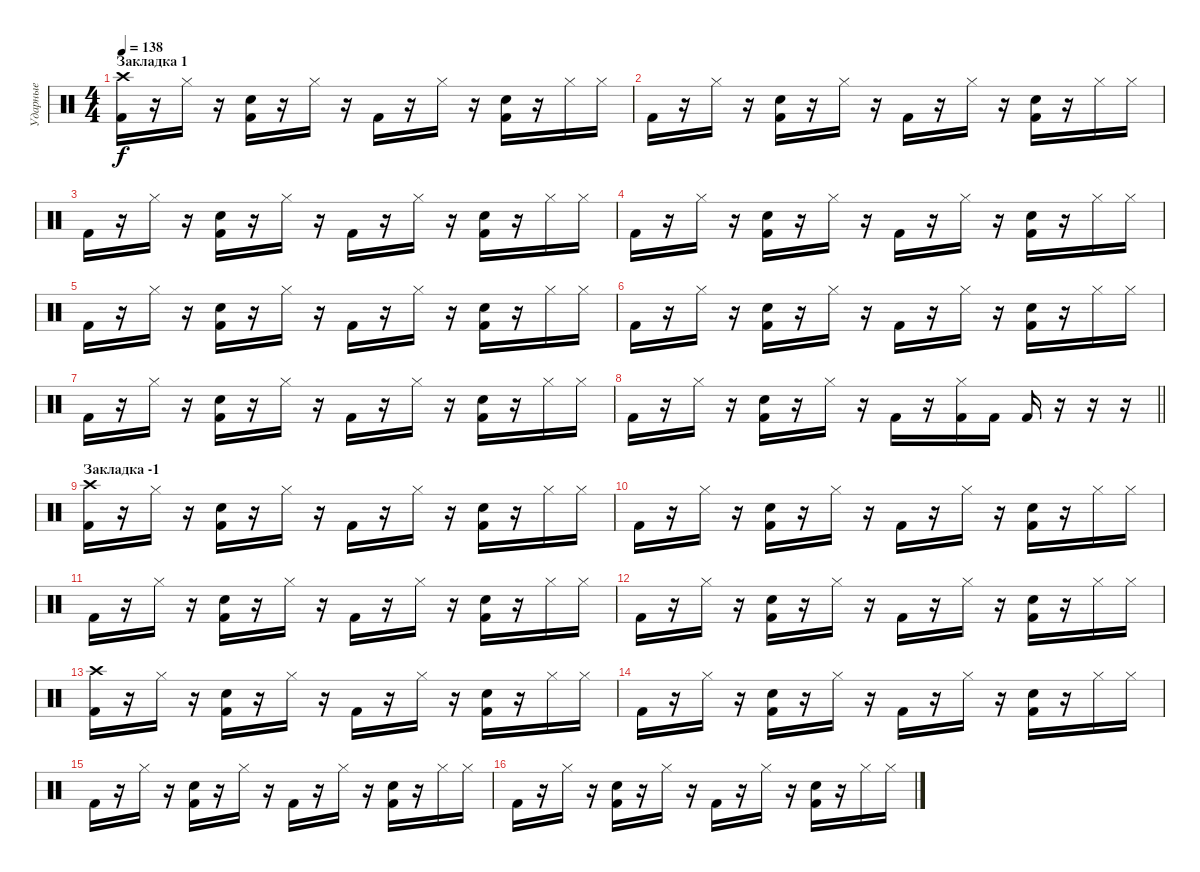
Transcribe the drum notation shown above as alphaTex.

\track ("Ударные" "Ударные") {instrument percussion}
\staff {score}
\articulation defaults
\ts (4 4)
\section ("" "Закладка 1")
\tempo 138
\clef neutral
\ks c
("Crash high (hit)" "Kick (hit) 2").16{dy f} r.16 "Hi-Hat (closed)".16 r.16 ("Electric Snare (hit)" "Kick (hit) 2").16 r.16 "Hi-Hat (closed)".16 r.16 "Kick (hit) 2".16 r.16 "Hi-Hat (closed)".16 r.16 ("Electric Snare (hit)" "Kick (hit) 2").16 r.16 "Hi-Hat (closed)".16 "Hi-Hat (closed)".16 |
"Kick (hit) 2".16 r.16 "Hi-Hat (closed)".16 r.16 ("Electric Snare (hit)" "Kick (hit) 2").16 r.16 "Hi-Hat (closed)".16 r.16 "Kick (hit) 2".16 r.16 "Hi-Hat (closed)".16 r.16 ("Electric Snare (hit)" "Kick (hit) 2").16 r.16 "Hi-Hat (closed)".16 "Hi-Hat (closed)".16 |
"Kick (hit) 2".16 r.16 "Hi-Hat (closed)".16 r.16 ("Electric Snare (hit)" "Kick (hit) 2").16 r.16 "Hi-Hat (closed)".16 r.16 "Kick (hit) 2".16 r.16 "Hi-Hat (closed)".16 r.16 ("Electric Snare (hit)" "Kick (hit) 2").16 r.16 "Hi-Hat (closed)".16 "Hi-Hat (closed)".16 |
"Kick (hit) 2".16 r.16 "Hi-Hat (closed)".16 r.16 ("Electric Snare (hit)" "Kick (hit) 2").16 r.16 "Hi-Hat (closed)".16 r.16 "Kick (hit) 2".16 r.16 "Hi-Hat (closed)".16 r.16 ("Electric Snare (hit)" "Kick (hit) 2").16 r.16 "Hi-Hat (closed)".16 "Hi-Hat (closed)".16 |
"Kick (hit) 2".16 r.16 "Hi-Hat (closed)".16 r.16 ("Electric Snare (hit)" "Kick (hit) 2").16 r.16 "Hi-Hat (closed)".16 r.16 "Kick (hit) 2".16 r.16 "Hi-Hat (closed)".16 r.16 ("Electric Snare (hit)" "Kick (hit) 2").16 r.16 "Hi-Hat (closed)".16 "Hi-Hat (closed)".16 |
"Kick (hit) 2".16 r.16 "Hi-Hat (closed)".16 r.16 ("Electric Snare (hit)" "Kick (hit) 2").16 r.16 "Hi-Hat (closed)".16 r.16 "Kick (hit) 2".16 r.16 "Hi-Hat (closed)".16 r.16 ("Electric Snare (hit)" "Kick (hit) 2").16 r.16 "Hi-Hat (closed)".16 "Hi-Hat (closed)".16 |
"Kick (hit) 2".16 r.16 "Hi-Hat (closed)".16 r.16 ("Electric Snare (hit)" "Kick (hit) 2").16 r.16 "Hi-Hat (closed)".16 r.16 "Kick (hit) 2".16 r.16 "Hi-Hat (closed)".16 r.16 ("Electric Snare (hit)" "Kick (hit) 2").16 r.16 "Hi-Hat (closed)".16 "Hi-Hat (closed)".16 |
\barLineRight lightlight "Kick (hit) 2".16
r.16 "Hi-Hat (closed)".16 r.16 ("Electric Snare (hit)" "Kick (hit) 2").16 r.16 "Hi-Hat (closed)".16 r.16 "Kick (hit) 2".16 r.16 ("Hi-Hat (closed)" "Kick (hit) 2").16 "Kick (hit) 2".16 "Kick (hit) 2".16 r.16 r.16 r.16 |
\section ("" "Закладка -1")
("Crash high (hit)" "Kick (hit) 2").16 r.16 "Hi-Hat (closed)".16 r.16 ("Electric Snare (hit)" "Kick (hit) 2").16 r.16 "Hi-Hat (closed)".16 r.16 "Kick (hit) 2".16 r.16 "Hi-Hat (closed)".16 r.16 ("Electric Snare (hit)" "Kick (hit) 2").16 r.16 "Hi-Hat (closed)".16 "Hi-Hat (closed)".16 |
"Kick (hit) 2".16 r.16 "Hi-Hat (closed)".16 r.16 ("Electric Snare (hit)" "Kick (hit) 2").16 r.16 "Hi-Hat (closed)".16 r.16 "Kick (hit) 2".16 r.16 "Hi-Hat (closed)".16 r.16 ("Electric Snare (hit)" "Kick (hit) 2").16 r.16 "Hi-Hat (closed)".16 "Hi-Hat (closed)".16 |
"Kick (hit) 2".16 r.16 "Hi-Hat (closed)".16 r.16 ("Electric Snare (hit)" "Kick (hit) 2").16 r.16 "Hi-Hat (closed)".16 r.16 "Kick (hit) 2".16 r.16 "Hi-Hat (closed)".16 r.16 ("Electric Snare (hit)" "Kick (hit) 2").16 r.16 "Hi-Hat (closed)".16 "Hi-Hat (closed)".16 |
"Kick (hit) 2".16 r.16 "Hi-Hat (closed)".16 r.16 ("Electric Snare (hit)" "Kick (hit) 2").16 r.16 "Hi-Hat (closed)".16 r.16 "Kick (hit) 2".16 r.16 "Hi-Hat (closed)".16 r.16 ("Electric Snare (hit)" "Kick (hit) 2").16 r.16 "Hi-Hat (closed)".16 "Hi-Hat (closed)".16 |
("Crash high (hit)" "Kick (hit) 2").16 r.16 "Hi-Hat (closed)".16 r.16 ("Electric Snare (hit)" "Kick (hit) 2").16 r.16 "Hi-Hat (closed)".16 r.16 "Kick (hit) 2".16 r.16 "Hi-Hat (closed)".16 r.16 ("Electric Snare (hit)" "Kick (hit) 2").16 r.16 "Hi-Hat (closed)".16 "Hi-Hat (closed)".16 |
"Kick (hit) 2".16 r.16 "Hi-Hat (closed)".16 r.16 ("Electric Snare (hit)" "Kick (hit) 2").16 r.16 "Hi-Hat (closed)".16 r.16 "Kick (hit) 2".16 r.16 "Hi-Hat (closed)".16 r.16 ("Electric Snare (hit)" "Kick (hit) 2").16 r.16 "Hi-Hat (closed)".16 "Hi-Hat (closed)".16 |
"Kick (hit) 2".16 r.16 "Hi-Hat (closed)".16 r.16 ("Electric Snare (hit)" "Kick (hit) 2").16 r.16 "Hi-Hat (closed)".16 r.16 "Kick (hit) 2".16 r.16 "Hi-Hat (closed)".16 r.16 ("Electric Snare (hit)" "Kick (hit) 2").16 r.16 "Hi-Hat (closed)".16 "Hi-Hat (closed)".16 |
"Kick (hit) 2".16 r.16 "Hi-Hat (closed)".16 r.16 ("Electric Snare (hit)" "Kick (hit) 2").16 r.16 "Hi-Hat (closed)".16 r.16 "Kick (hit) 2".16 r.16 "Hi-Hat (closed)".16 r.16 ("Electric Snare (hit)" "Kick (hit) 2").16 r.16 "Hi-Hat (closed)".16 "Hi-Hat (closed)".16
